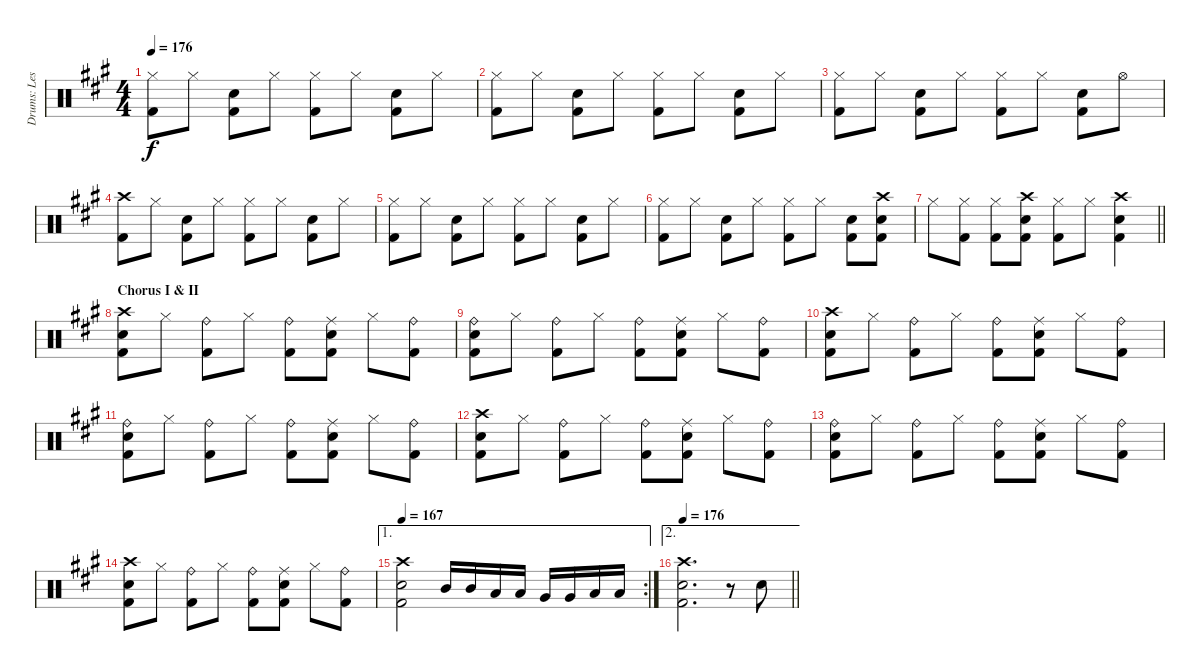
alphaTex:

\track ("Drums: Les" "Drums: Les") {instrument percussion}
\staff {score}
\articulation defaults
\ts (4 4)
\tempo 176
\clef neutral
\ks a
("Hi-Hat (closed)" "Kick (hit) 2").8{dy f} "Hi-Hat (closed)".8 ("Snare (hit) 2" "Kick (hit) 2").8 "Hi-Hat (closed)".8 ("Hi-Hat (closed)" "Kick (hit) 2").8 "Hi-Hat (closed)".8 ("Snare (hit) 2" "Kick (hit) 2").8 "Hi-Hat (closed)".8 |
("Hi-Hat (closed)" "Kick (hit) 2").8 "Hi-Hat (closed)".8 ("Snare (hit) 2" "Kick (hit) 2").8 "Hi-Hat (closed)".8 ("Hi-Hat (closed)" "Kick (hit) 2").8 "Hi-Hat (closed)".8 ("Snare (hit) 2" "Kick (hit) 2").8 "Hi-Hat (closed)".8 |
("Hi-Hat (closed)" "Kick (hit) 2").8 "Hi-Hat (closed)".8 ("Snare (hit) 2" "Kick (hit) 2").8 "Hi-Hat (closed)".8 ("Hi-Hat (closed)" "Kick (hit) 2").8 "Hi-Hat (closed)".8 ("Snare (hit) 2" "Kick (hit) 2").8 "Hi-Hat (open)".8 |
("Crash high (hit)" "Kick (hit) 2").8 "Hi-Hat (closed)".8 ("Snare (hit) 2" "Kick (hit) 2").8 "Hi-Hat (closed)".8 ("Hi-Hat (closed)" "Kick (hit) 2").8 "Hi-Hat (closed)".8 ("Snare (hit) 2" "Kick (hit) 2").8 "Hi-Hat (closed)".8 |
("Hi-Hat (closed)" "Kick (hit) 2").8 "Hi-Hat (closed)".8 ("Snare (hit) 2" "Kick (hit) 2").8 "Hi-Hat (closed)".8 ("Hi-Hat (closed)" "Kick (hit) 2").8 "Hi-Hat (closed)".8 ("Snare (hit) 2" "Kick (hit) 2").8 "Hi-Hat (closed)".8 |
("Hi-Hat (closed)" "Kick (hit) 2").8 "Hi-Hat (closed)".8 ("Snare (hit) 2" "Kick (hit) 2").8 "Hi-Hat (closed)".8 ("Hi-Hat (closed)" "Kick (hit) 2").8 "Hi-Hat (closed)".8 ("Snare (hit) 2" "Kick (hit) 2").8 ("Crash high (hit)" "Snare (hit) 2" "Kick (hit) 2").8 |
\barLineRight lightlight "Hi-Hat (closed)".8
("Hi-Hat (closed)" "Kick (hit) 2").8 ("Hi-Hat (closed)" "Kick (hit) 2").8 ("Crash high (hit)" "Snare (hit) 2" "Kick (hit) 2").8 ("Hi-Hat (closed)" "Kick (hit) 2").8 "Hi-Hat (closed)".8 ("Crash high (hit)" "Snare (hit) 2" "Kick (hit) 2").4 |
\section ("" "Chorus I & II")
("Crash high (hit)" "Snare (hit) 2" "Kick (hit) 2").8 "Hi-Hat (closed)".8 ("Ride (bell)" "Kick (hit) 2").8 "Hi-Hat (closed)".8 ("Ride (bell)" "Kick (hit) 2").8 ("Ride (middle)" "Snare (hit) 2" "Kick (hit) 2").8 "Hi-Hat (closed)".8 ("Ride (bell)" "Kick (hit) 2").8 |
("Ride (bell)" "Snare (hit) 2" "Kick (hit) 2").8 "Hi-Hat (closed)".8 ("Ride (bell)" "Kick (hit) 2").8 "Hi-Hat (closed)".8 ("Ride (bell)" "Kick (hit) 2").8 ("Ride (middle)" "Snare (hit) 2" "Kick (hit) 2").8 "Hi-Hat (closed)".8 ("Ride (bell)" "Kick (hit) 2").8 |
("Crash high (hit)" "Snare (hit) 2" "Kick (hit) 2").8 "Hi-Hat (closed)".8 ("Ride (bell)" "Kick (hit) 2").8 "Hi-Hat (closed)".8 ("Ride (bell)" "Kick (hit) 2").8 ("Ride (middle)" "Snare (hit) 2" "Kick (hit) 2").8 "Hi-Hat (closed)".8 ("Ride (bell)" "Kick (hit) 2").8 |
("Ride (bell)" "Snare (hit) 2" "Kick (hit) 2").8 "Hi-Hat (closed)".8 ("Ride (bell)" "Kick (hit) 2").8 "Hi-Hat (closed)".8 ("Ride (bell)" "Kick (hit) 2").8 ("Ride (middle)" "Snare (hit) 2" "Kick (hit) 2").8 "Hi-Hat (closed)".8 ("Ride (bell)" "Kick (hit) 2").8 |
("Crash high (hit)" "Snare (hit) 2" "Kick (hit) 2").8 "Hi-Hat (closed)".8 ("Ride (bell)" "Kick (hit) 2").8 "Hi-Hat (closed)".8 ("Ride (bell)" "Kick (hit) 2").8 ("Ride (middle)" "Snare (hit) 2" "Kick (hit) 2").8 "Hi-Hat (closed)".8 ("Ride (bell)" "Kick (hit) 2").8 |
("Ride (bell)" "Snare (hit) 2" "Kick (hit) 2").8 "Hi-Hat (closed)".8 ("Ride (bell)" "Kick (hit) 2").8 "Hi-Hat (closed)".8 ("Ride (bell)" "Kick (hit) 2").8 ("Ride (middle)" "Snare (hit) 2" "Kick (hit) 2").8 "Hi-Hat (closed)".8 ("Ride (bell)" "Kick (hit) 2").8 |
("Crash high (hit)" "Snare (hit) 2" "Kick (hit) 2").8 "Hi-Hat (closed)".8 ("Ride (bell)" "Kick (hit) 2").8 "Hi-Hat (closed)".8 ("Ride (bell)" "Kick (hit) 2").8 ("Ride (middle)" "Snare (hit) 2" "Kick (hit) 2").8 "Hi-Hat (closed)".8 ("Ride (bell)" "Kick (hit) 2").8 |
\ae 1
\rc 2
\tempo 167
("Crash high (hit)" "Snare (hit) 2" "Kick (hit) 2").2 "Mid Tom (hit)".16 "Mid Tom (hit)".16 "Low Tom (hit)".16 "Low Tom (hit)".16 "Very Low Tom (hit)".16 "Very Low Tom (hit)".16 "Low Floor Tom (hit)".16 "Low Floor Tom (hit)".16 |
\ae 2
\tempo 176
\barLineRight lightlight
("Crash high (hit)" "Snare (hit) 2" "Kick (hit) 2").2{d} r.8 "Snare (hit) 2".8
